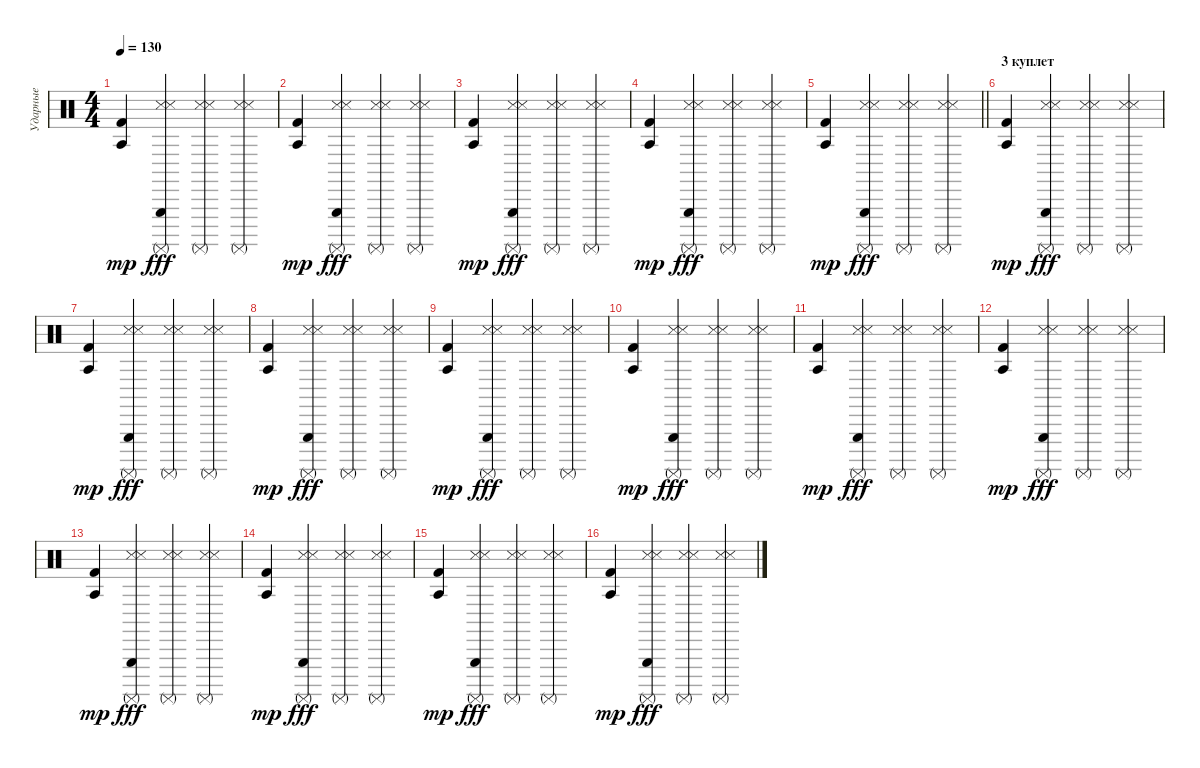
\track ("Ударные" "Ударные") {instrument percussion}
\staff {score}
\articulation defaults
\ts (4 4)
\tempo 130
\clef neutral
\ks c
("Kick (hit) 2" "Agogo tow (hit)").4{dy mp} ("Metronome (hit)" "Snare (side stick) 3" "Surdo (mute)" "Triangle (hit)").4{dy fff} ("Metronome (hit)" "Snare (side stick) 3" "Surdo (mute)").4 ("Metronome (hit)" "Snare (side stick) 3" "Surdo (mute)").4 |
("Kick (hit) 2" "Agogo tow (hit)").4{dy mp} ("Metronome (hit)" "Snare (side stick) 3" "Surdo (mute)" "Triangle (hit)").4{dy fff} ("Metronome (hit)" "Snare (side stick) 3" "Surdo (mute)").4 ("Metronome (hit)" "Snare (side stick) 3" "Surdo (mute)").4 |
("Kick (hit) 2" "Agogo tow (hit)").4{dy mp} ("Metronome (hit)" "Snare (side stick) 3" "Surdo (mute)" "Triangle (hit)").4{dy fff} ("Metronome (hit)" "Snare (side stick) 3" "Surdo (mute)").4 ("Metronome (hit)" "Snare (side stick) 3" "Surdo (mute)").4 |
("Kick (hit) 2" "Agogo tow (hit)").4{dy mp} ("Metronome (hit)" "Snare (side stick) 3" "Surdo (mute)" "Triangle (hit)").4{dy fff} ("Metronome (hit)" "Snare (side stick) 3" "Surdo (mute)").4 ("Metronome (hit)" "Snare (side stick) 3" "Surdo (mute)").4 |
\barLineRight lightlight
("Kick (hit) 2" "Agogo tow (hit)").4{dy mp} ("Metronome (hit)" "Snare (side stick) 3" "Surdo (mute)" "Triangle (hit)").4{dy fff} ("Metronome (hit)" "Snare (side stick) 3" "Surdo (mute)").4 ("Metronome (hit)" "Snare (side stick) 3" "Surdo (mute)").4 |
\section ("" "3 куплет")
("Kick (hit) 2" "Agogo tow (hit)").4{dy mp} ("Metronome (hit)" "Snare (side stick) 3" "Surdo (mute)" "Triangle (hit)").4{dy fff} ("Metronome (hit)" "Snare (side stick) 3" "Surdo (mute)").4 ("Metronome (hit)" "Snare (side stick) 3" "Surdo (mute)").4 |
("Kick (hit) 2" "Agogo tow (hit)").4{dy mp} ("Metronome (hit)" "Snare (side stick) 3" "Surdo (mute)" "Triangle (hit)").4{dy fff} ("Metronome (hit)" "Snare (side stick) 3" "Surdo (mute)").4 ("Metronome (hit)" "Snare (side stick) 3" "Surdo (mute)").4 |
("Kick (hit) 2" "Agogo tow (hit)").4{dy mp} ("Metronome (hit)" "Snare (side stick) 3" "Surdo (mute)" "Triangle (hit)").4{dy fff} ("Metronome (hit)" "Snare (side stick) 3" "Surdo (mute)").4 ("Metronome (hit)" "Snare (side stick) 3" "Surdo (mute)").4 |
("Kick (hit) 2" "Agogo tow (hit)").4{dy mp} ("Metronome (hit)" "Snare (side stick) 3" "Surdo (mute)" "Triangle (hit)").4{dy fff} ("Metronome (hit)" "Snare (side stick) 3" "Surdo (mute)").4 ("Metronome (hit)" "Snare (side stick) 3" "Surdo (mute)").4 |
("Kick (hit) 2" "Agogo tow (hit)").4{dy mp} ("Metronome (hit)" "Snare (side stick) 3" "Surdo (mute)" "Triangle (hit)").4{dy fff} ("Metronome (hit)" "Snare (side stick) 3" "Surdo (mute)").4 ("Metronome (hit)" "Snare (side stick) 3" "Surdo (mute)").4 |
("Kick (hit) 2" "Agogo tow (hit)").4{dy mp} ("Metronome (hit)" "Snare (side stick) 3" "Surdo (mute)" "Triangle (hit)").4{dy fff} ("Metronome (hit)" "Snare (side stick) 3" "Surdo (mute)").4 ("Metronome (hit)" "Snare (side stick) 3" "Surdo (mute)").4 |
("Kick (hit) 2" "Agogo tow (hit)").4{dy mp} ("Metronome (hit)" "Snare (side stick) 3" "Surdo (mute)" "Triangle (hit)").4{dy fff} ("Metronome (hit)" "Snare (side stick) 3" "Surdo (mute)").4 ("Metronome (hit)" "Snare (side stick) 3" "Surdo (mute)").4 |
("Kick (hit) 2" "Agogo tow (hit)").4{dy mp} ("Metronome (hit)" "Snare (side stick) 3" "Surdo (mute)" "Triangle (hit)").4{dy fff} ("Metronome (hit)" "Snare (side stick) 3" "Surdo (mute)").4 ("Metronome (hit)" "Snare (side stick) 3" "Surdo (mute)").4 |
("Kick (hit) 2" "Agogo tow (hit)").4{dy mp} ("Metronome (hit)" "Snare (side stick) 3" "Surdo (mute)" "Triangle (hit)").4{dy fff} ("Metronome (hit)" "Snare (side stick) 3" "Surdo (mute)").4 ("Metronome (hit)" "Snare (side stick) 3" "Surdo (mute)").4 |
("Kick (hit) 2" "Agogo tow (hit)").4{dy mp} ("Metronome (hit)" "Snare (side stick) 3" "Surdo (mute)" "Triangle (hit)").4{dy fff} ("Metronome (hit)" "Snare (side stick) 3" "Surdo (mute)").4 ("Metronome (hit)" "Snare (side stick) 3" "Surdo (mute)").4 |
("Kick (hit) 2" "Agogo tow (hit)").4{dy mp} ("Metronome (hit)" "Snare (side stick) 3" "Surdo (mute)" "Triangle (hit)").4{dy fff} ("Metronome (hit)" "Snare (side stick) 3" "Surdo (mute)").4 ("Metronome (hit)" "Snare (side stick) 3" "Surdo (mute)").4
